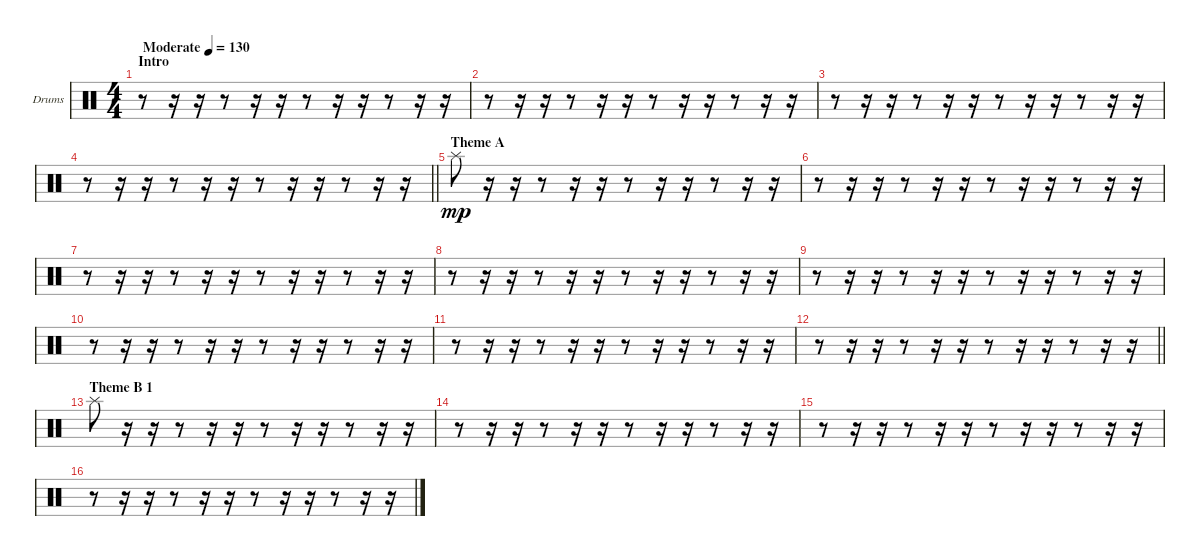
\bracketExtendMode groupsimilarinstruments
\firstSystemTrackNameOrientation horizontal
\otherSystemsTrackNameOrientation horizontal
\track ("Drumkit" "Drums") {instrument percussion}
\staff {score}
\articulation defaults
\ts (4 4)
\beaming (8 2 2 2 2)
\section ("" "Intro")
\tempo (130 "Moderate")
\clef neutral
\ks c
r.8{dy mp} r.16 r.16 r.8 r.16 r.16 r.8 r.16 r.16 r.8 r.16 r.16 |
r.8 r.16 r.16 r.8 r.16 r.16 r.8 r.16 r.16 r.8 r.16 r.16 |
r.8 r.16 r.16 r.8 r.16 r.16 r.8 r.16 r.16 r.8 r.16 r.16 |
\barLineRight lightlight
r.8 r.16 r.16 r.8 r.16 r.16 r.8 r.16 r.16 r.8 r.16 r.16 |
\section ("" "Theme A")
"Splash (hit)".8 r.16 r.16 r.8 r.16 r.16 r.8 r.16 r.16 r.8 r.16 r.16 |
r.8 r.16 r.16 r.8 r.16 r.16 r.8 r.16 r.16 r.8 r.16 r.16 |
r.8 r.16 r.16 r.8 r.16 r.16 r.8 r.16 r.16 r.8 r.16 r.16 |
r.8 r.16 r.16 r.8 r.16 r.16 r.8 r.16 r.16 r.8 r.16 r.16 |
r.8 r.16 r.16 r.8 r.16 r.16 r.8 r.16 r.16 r.8 r.16 r.16 |
r.8 r.16 r.16 r.8 r.16 r.16 r.8 r.16 r.16 r.8 r.16 r.16 |
r.8 r.16 r.16 r.8 r.16 r.16 r.8 r.16 r.16 r.8 r.16 r.16 |
\barLineRight lightlight
r.8 r.16 r.16 r.8 r.16 r.16 r.8 r.16 r.16 r.8 r.16 r.16 |
\section ("" "Theme B 1")
"Splash (hit)".8 r.16 r.16 r.8 r.16 r.16 r.8 r.16 r.16 r.8 r.16 r.16 |
r.8 r.16 r.16 r.8 r.16 r.16 r.8 r.16 r.16 r.8 r.16 r.16 |
r.8 r.16 r.16 r.8 r.16 r.16 r.8 r.16 r.16 r.8 r.16 r.16 |
r.8 r.16 r.16 r.8 r.16 r.16 r.8 r.16 r.16 r.8 r.16 r.16
